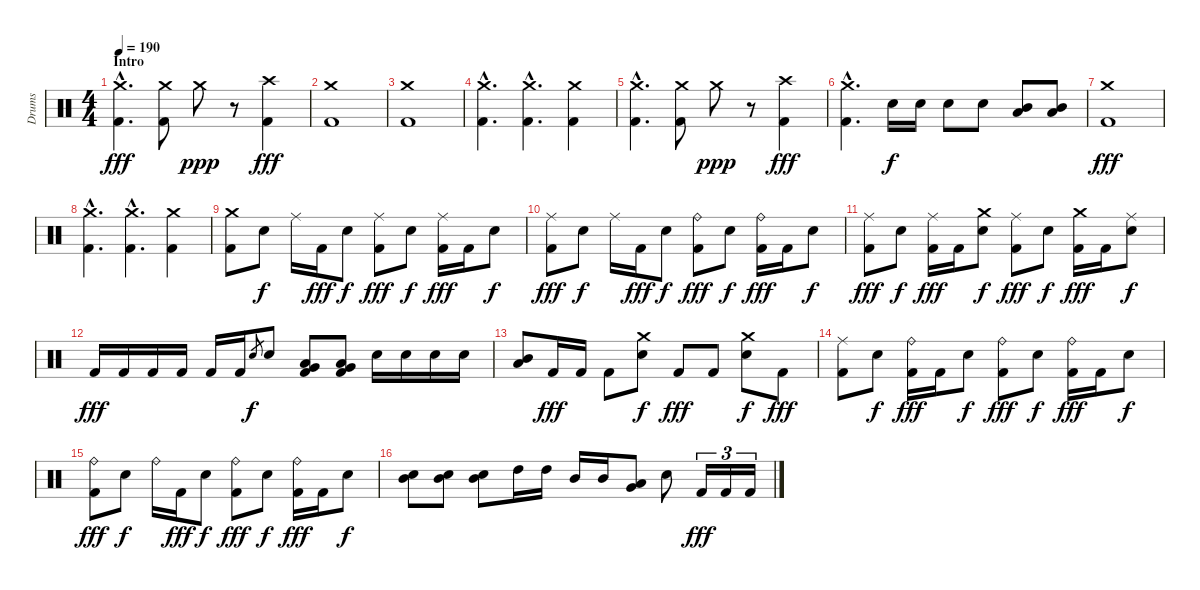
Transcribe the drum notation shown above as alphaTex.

\track ("Drums" "Drums") {instrument percussion}
\staff {score}
\articulation defaults
\ts (4 4)
\section ("" "Intro")
\tempo 190
\clef neutral
\ks c
("Crash medium (hit)"{hac} "Kick (hit) 2"{hac}).4{d dy fff} ("Crash medium (hit)" "Kick (hit) 2").8 "Crash medium (hit)".8{dy ppp} r.8 ("Crash high (hit)" "Kick (hit) 2").4{dy fff} |
("Crash medium (hit)" "Kick (hit) 2").1 |
("Crash medium (hit)" "Kick (hit) 2").1 |
("Crash medium (hit)"{hac} "Kick (hit) 2"{hac}).4{d} ("Crash medium (hit)"{hac} "Kick (hit) 2"{hac}).4{d} ("Crash medium (hit)" "Kick (hit) 2").4 |
("Crash medium (hit)"{hac} "Kick (hit) 2"{hac}).4{d} ("Crash medium (hit)" "Kick (hit) 2").8 "Crash medium (hit)".8{dy ppp} r.8 ("Crash high (hit)" "Kick (hit) 2").4{dy fff} |
("Crash medium (hit)"{hac} "Kick (hit) 2"{hac}).4{d} "Snare (hit) 2".16{dy f} "Snare (hit) 2".16 "Snare (hit) 2".8 "Snare (hit) 2".8 ("Mid Tom (hit)" "Low Tom (hit)").8 ("Mid Tom (hit)" "Low Tom (hit)").8 |
("Crash medium (hit)" "Kick (hit) 2").1{dy fff} |
("Crash medium (hit)"{hac} "Kick (hit) 2"{hac}).4{d} ("Crash medium (hit)"{hac} "Kick (hit) 2"{hac}).4{d} ("Crash medium (hit)" "Kick (hit) 2").4 |
("Crash medium (hit)" "Kick (hit) 2").8 "Snare (hit) 2".8{dy f} "Ride (middle)".16 "Kick (hit) 2".16{dy fff} "Snare (hit) 2".8{dy f} ("Ride (middle)" "Kick (hit) 2").8{dy fff} "Snare (hit) 2".8{dy f} ("Ride (middle)" "Kick (hit) 2").16{dy fff} "Kick (hit) 2".16 "Snare (hit) 2".8{dy f} |
("Ride (middle)" "Kick (hit) 2").8{dy fff} "Snare (hit) 2".8{dy f} "Ride (middle)".16 "Kick (hit) 2".16{dy fff} "Snare (hit) 2".8{dy f} ("Ride (bell)" "Kick (hit) 2").8{dy fff} "Snare (hit) 2".8{dy f} ("Ride (bell)" "Kick (hit) 2").16{dy fff} "Kick (hit) 2".16 "Snare (hit) 2".8{dy f} |
("Ride (middle)" "Kick (hit) 2").8{dy fff} "Snare (hit) 2".8{dy f} ("Ride (middle)" "Kick (hit) 2").16{dy fff} "Kick (hit) 2".16 ("Crash medium (hit)" "Snare (hit) 2").8{dy f} ("Ride (middle)" "Kick (hit) 2").8{dy fff} "Snare (hit) 2".8{dy f} ("Crash medium (hit)" "Kick (hit) 2").16{dy fff} "Kick (hit) 2".16 ("Ride (middle)" "Snare (hit) 2").8{dy f} |
"Kick (hit) 2".16{dy fff} "Kick (hit) 2".16 "Kick (hit) 2".16 "Kick (hit) 2".16 "Kick (hit) 2".16 "Kick (hit) 2".16 "Snare (hit) 2".8{gr dy f} "Snare (hit) 2".8 ("Low Tom (hit)" "Very Low Tom (hit)" "Kick (hit) 2").8 ("Very Low Tom (hit)" "Low Tom (hit)" "Kick (hit) 2").8 "Snare (hit) 2".16 "Snare (hit) 2".16 "Snare (hit) 2".16 "Snare (hit) 2".16 |
("Mid Tom (hit)" "Low Tom (hit)").8 "Kick (hit) 2".16{dy fff} "Kick (hit) 2".16 "Kick (hit) 2".8 ("Crash medium (hit)" "Snare (hit) 2").8{dy f} "Kick (hit) 2".8{dy fff} "Kick (hit) 2".8 ("Crash medium (hit)" "Snare (hit) 2").8{dy f} "Kick (hit) 2".8{dy fff} |
("Ride (middle)" "Kick (hit) 2").8 "Snare (hit) 2".8{dy f} ("Ride (bell)" "Kick (hit) 2").16{dy fff} "Kick (hit) 2".16 "Snare (hit) 2".8{dy f} ("Ride (bell)" "Kick (hit) 2").8{dy fff} "Snare (hit) 2".8{dy f} ("Ride (bell)" "Kick (hit) 2").16{dy fff} "Kick (hit) 2".16 "Snare (hit) 2".8{dy f} |
("Ride (bell)" "Kick (hit) 2").8{dy fff} "Snare (hit) 2".8{dy f} "Ride (bell)".16 "Kick (hit) 2".16{dy fff} "Snare (hit) 2".8{dy f} ("Ride (bell)" "Kick (hit) 2").8{dy fff} "Snare (hit) 2".8{dy f} ("Ride (bell)" "Kick (hit) 2").16{dy fff} "Kick (hit) 2".16 "Snare (hit) 2".8{dy f} |
("Snare (hit) 2" "Mid Tom (hit)").8 ("Snare (hit) 2" "Mid Tom (hit)").8 ("Snare (hit) 2" "Mid Tom (hit)").8 "High Tom (hit)".16 "High Tom (hit)".16 "Mid Tom (hit)".16 "Mid Tom (hit)".16 ("Low Tom (hit)" "Very Low Tom (hit)").8 "Snare (hit) 2".8 "Kick (hit) 2".16{tu (3 2) dy fff} "Kick (hit) 2".16{tu (3 2)} "Kick (hit) 2".16{tu (3 2)}
